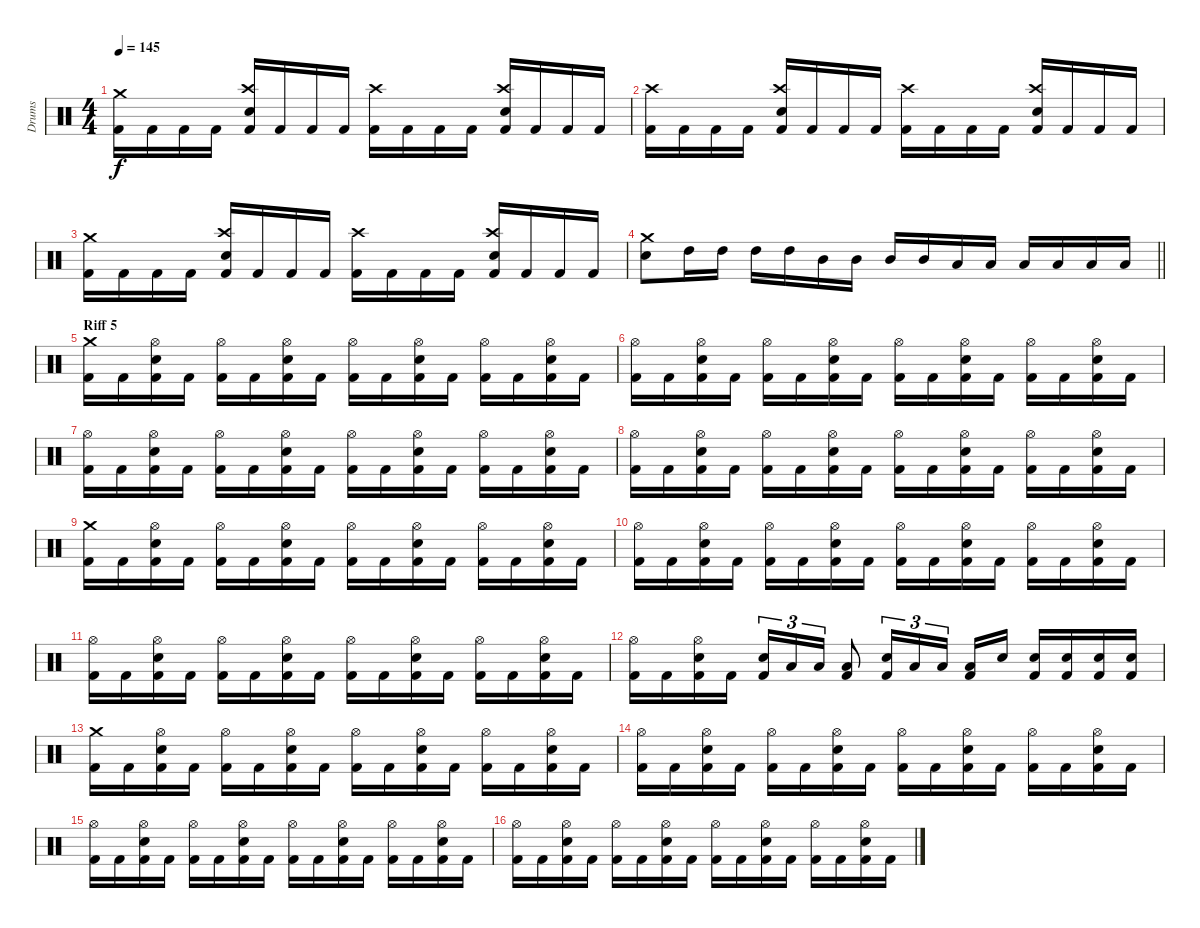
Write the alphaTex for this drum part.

\track ("Drums" "Drums") {instrument percussion}
\staff {score}
\articulation defaults
\ts (4 4)
\tempo 145
\clef neutral
\ks c
("Crash medium (hit)" "Kick (hit) 2").16{dy f} "Kick (hit) 2".16 "Kick (hit) 2".16 "Kick (hit) 2".16 ("Crash high (hit)" "Electric Snare (hit)" "Kick (hit) 2").16 "Kick (hit) 2".16 "Kick (hit) 2".16 "Kick (hit) 2".16 ("Crash high (hit)" "Kick (hit) 2").16 "Kick (hit) 2".16 "Kick (hit) 2".16 "Kick (hit) 2".16 ("Crash high (hit)" "Electric Snare (hit)" "Kick (hit) 2").16 "Kick (hit) 2".16 "Kick (hit) 2".16 "Kick (hit) 2".16 |
("Crash high (hit)" "Kick (hit) 2").16 "Kick (hit) 2".16 "Kick (hit) 2".16 "Kick (hit) 2".16 ("Crash high (hit)" "Electric Snare (hit)" "Kick (hit) 2").16 "Kick (hit) 2".16 "Kick (hit) 2".16 "Kick (hit) 2".16 ("Crash high (hit)" "Kick (hit) 2").16 "Kick (hit) 2".16 "Kick (hit) 2".16 "Kick (hit) 2".16 ("Crash high (hit)" "Electric Snare (hit)" "Kick (hit) 2").16 "Kick (hit) 2".16 "Kick (hit) 2".16 "Kick (hit) 2".16 |
("Crash medium (hit)" "Kick (hit) 2").16 "Kick (hit) 2".16 "Kick (hit) 2".16 "Kick (hit) 2".16 ("Crash high (hit)" "Electric Snare (hit)" "Kick (hit) 2").16 "Kick (hit) 2".16 "Kick (hit) 2".16 "Kick (hit) 2".16 ("Crash high (hit)" "Kick (hit) 2").16 "Kick (hit) 2".16 "Kick (hit) 2".16 "Kick (hit) 2".16 ("Crash high (hit)" "Electric Snare (hit)" "Kick (hit) 2").16 "Kick (hit) 2".16 "Kick (hit) 2".16 "Kick (hit) 2".16 |
\barLineRight lightlight
("Crash medium (hit)" "Electric Snare (hit)").8 "High Tom (hit)".16 "High Tom (hit)".16 "High Tom (hit)".16 "High Tom (hit)".16 "Mid Tom (hit)".16 "Mid Tom (hit)".16 "Mid Tom (hit)".16 "Mid Tom (hit)".16 "Low Tom (hit)".16 "Low Tom (hit)".16 "Low Tom (hit)".16 "Low Tom (hit)".16 "Low Floor Tom (hit)".16 "Low Floor Tom (hit)".16 |
\section ("" "Riff 5")
("Crash medium (hit)" "Kick (hit) 2").16 "Kick (hit) 2".16 ("Hi-Hat (open)" "Electric Snare (hit)" "Kick (hit) 2").16 "Kick (hit) 2".16 ("Hi-Hat (open)" "Kick (hit) 2").16 "Kick (hit) 2".16 ("Hi-Hat (open)" "Electric Snare (hit)" "Kick (hit) 2").16 "Kick (hit) 2".16 ("Hi-Hat (open)" "Kick (hit) 2").16 "Kick (hit) 2".16 ("Hi-Hat (open)" "Electric Snare (hit)" "Kick (hit) 2").16 "Kick (hit) 2".16 ("Hi-Hat (open)" "Kick (hit) 2").16 "Kick (hit) 2".16 ("Hi-Hat (open)" "Electric Snare (hit)" "Kick (hit) 2").16 "Kick (hit) 2".16 |
("Hi-Hat (open)" "Kick (hit) 2").16 "Kick (hit) 2".16 ("Hi-Hat (open)" "Electric Snare (hit)" "Kick (hit) 2").16 "Kick (hit) 2".16 ("Hi-Hat (open)" "Kick (hit) 2").16 "Kick (hit) 2".16 ("Hi-Hat (open)" "Electric Snare (hit)" "Kick (hit) 2").16 "Kick (hit) 2".16 ("Hi-Hat (open)" "Kick (hit) 2").16 "Kick (hit) 2".16 ("Hi-Hat (open)" "Electric Snare (hit)" "Kick (hit) 2").16 "Kick (hit) 2".16 ("Hi-Hat (open)" "Kick (hit) 2").16 "Kick (hit) 2".16 ("Hi-Hat (open)" "Electric Snare (hit)" "Kick (hit) 2").16 "Kick (hit) 2".16 |
("Hi-Hat (open)" "Kick (hit) 2").16 "Kick (hit) 2".16 ("Hi-Hat (open)" "Electric Snare (hit)" "Kick (hit) 2").16 "Kick (hit) 2".16 ("Hi-Hat (open)" "Kick (hit) 2").16 "Kick (hit) 2".16 ("Hi-Hat (open)" "Electric Snare (hit)" "Kick (hit) 2").16 "Kick (hit) 2".16 ("Hi-Hat (open)" "Kick (hit) 2").16 "Kick (hit) 2".16 ("Hi-Hat (open)" "Electric Snare (hit)" "Kick (hit) 2").16 "Kick (hit) 2".16 ("Hi-Hat (open)" "Kick (hit) 2").16 "Kick (hit) 2".16 ("Hi-Hat (open)" "Electric Snare (hit)" "Kick (hit) 2").16 "Kick (hit) 2".16 |
("Hi-Hat (open)" "Kick (hit) 2").16 "Kick (hit) 2".16 ("Hi-Hat (open)" "Electric Snare (hit)" "Kick (hit) 2").16 "Kick (hit) 2".16 ("Hi-Hat (open)" "Kick (hit) 2").16 "Kick (hit) 2".16 ("Hi-Hat (open)" "Electric Snare (hit)" "Kick (hit) 2").16 "Kick (hit) 2".16 ("Hi-Hat (open)" "Kick (hit) 2").16 "Kick (hit) 2".16 ("Hi-Hat (open)" "Electric Snare (hit)" "Kick (hit) 2").16 "Kick (hit) 2".16 ("Hi-Hat (open)" "Kick (hit) 2").16 "Kick (hit) 2".16 ("Hi-Hat (open)" "Electric Snare (hit)" "Kick (hit) 2").16 "Kick (hit) 2".16 |
("Crash medium (hit)" "Kick (hit) 2").16 "Kick (hit) 2".16 ("Hi-Hat (open)" "Electric Snare (hit)" "Kick (hit) 2").16 "Kick (hit) 2".16 ("Hi-Hat (open)" "Kick (hit) 2").16 "Kick (hit) 2".16 ("Hi-Hat (open)" "Electric Snare (hit)" "Kick (hit) 2").16 "Kick (hit) 2".16 ("Hi-Hat (open)" "Kick (hit) 2").16 "Kick (hit) 2".16 ("Hi-Hat (open)" "Electric Snare (hit)" "Kick (hit) 2").16 "Kick (hit) 2".16 ("Hi-Hat (open)" "Kick (hit) 2").16 "Kick (hit) 2".16 ("Hi-Hat (open)" "Electric Snare (hit)" "Kick (hit) 2").16 "Kick (hit) 2".16 |
("Hi-Hat (open)" "Kick (hit) 2").16 "Kick (hit) 2".16 ("Hi-Hat (open)" "Electric Snare (hit)" "Kick (hit) 2").16 "Kick (hit) 2".16 ("Hi-Hat (open)" "Kick (hit) 2").16 "Kick (hit) 2".16 ("Hi-Hat (open)" "Electric Snare (hit)" "Kick (hit) 2").16 "Kick (hit) 2".16 ("Hi-Hat (open)" "Kick (hit) 2").16 "Kick (hit) 2".16 ("Hi-Hat (open)" "Electric Snare (hit)" "Kick (hit) 2").16 "Kick (hit) 2".16 ("Hi-Hat (open)" "Kick (hit) 2").16 "Kick (hit) 2".16 ("Hi-Hat (open)" "Electric Snare (hit)" "Kick (hit) 2").16 "Kick (hit) 2".16 |
("Hi-Hat (open)" "Kick (hit) 2").16 "Kick (hit) 2".16 ("Hi-Hat (open)" "Electric Snare (hit)" "Kick (hit) 2").16 "Kick (hit) 2".16 ("Hi-Hat (open)" "Kick (hit) 2").16 "Kick (hit) 2".16 ("Hi-Hat (open)" "Electric Snare (hit)" "Kick (hit) 2").16 "Kick (hit) 2".16 ("Hi-Hat (open)" "Kick (hit) 2").16 "Kick (hit) 2".16 ("Hi-Hat (open)" "Electric Snare (hit)" "Kick (hit) 2").16 "Kick (hit) 2".16 ("Hi-Hat (open)" "Kick (hit) 2").16 "Kick (hit) 2".16 ("Hi-Hat (open)" "Electric Snare (hit)" "Kick (hit) 2").16 "Kick (hit) 2".16 |
("Hi-Hat (open)" "Kick (hit) 2").16 "Kick (hit) 2".16 ("Hi-Hat (open)" "Electric Snare (hit)" "Kick (hit) 2").16 "Kick (hit) 2".16 ("Electric Snare (hit)" "Kick (hit) 2").16{tu (3 2)} "Low Tom (hit)".16{tu (3 2)} "Low Tom (hit)".16{tu (3 2)} ("Low Floor Tom (hit)" "Kick (hit) 2").8 ("Electric Snare (hit)" "Kick (hit) 2").16{tu (3 2)} "Low Tom (hit)".16{tu (3 2)} "Low Tom (hit)".16{tu (3 2) beam splitsecondary} ("Low Floor Tom (hit)" "Kick (hit) 2").16 "Electric Snare (hit)".16 ("Electric Snare (hit)" "Kick (hit) 2").16 ("Electric Snare (hit)" "Kick (hit) 2").16 ("Electric Snare (hit)" "Kick (hit) 2").16 ("Electric Snare (hit)" "Kick (hit) 2").16 |
("Crash medium (hit)" "Kick (hit) 2").16 "Kick (hit) 2".16 ("Hi-Hat (open)" "Electric Snare (hit)" "Kick (hit) 2").16 "Kick (hit) 2".16 ("Hi-Hat (open)" "Kick (hit) 2").16 "Kick (hit) 2".16 ("Hi-Hat (open)" "Electric Snare (hit)" "Kick (hit) 2").16 "Kick (hit) 2".16 ("Hi-Hat (open)" "Kick (hit) 2").16 "Kick (hit) 2".16 ("Hi-Hat (open)" "Electric Snare (hit)" "Kick (hit) 2").16 "Kick (hit) 2".16 ("Hi-Hat (open)" "Kick (hit) 2").16 "Kick (hit) 2".16 ("Hi-Hat (open)" "Electric Snare (hit)" "Kick (hit) 2").16 "Kick (hit) 2".16 |
("Hi-Hat (open)" "Kick (hit) 2").16 "Kick (hit) 2".16 ("Hi-Hat (open)" "Electric Snare (hit)" "Kick (hit) 2").16 "Kick (hit) 2".16 ("Hi-Hat (open)" "Kick (hit) 2").16 "Kick (hit) 2".16 ("Hi-Hat (open)" "Electric Snare (hit)" "Kick (hit) 2").16 "Kick (hit) 2".16 ("Hi-Hat (open)" "Kick (hit) 2").16 "Kick (hit) 2".16 ("Hi-Hat (open)" "Electric Snare (hit)" "Kick (hit) 2").16 "Kick (hit) 2".16 ("Hi-Hat (open)" "Kick (hit) 2").16 "Kick (hit) 2".16 ("Hi-Hat (open)" "Electric Snare (hit)" "Kick (hit) 2").16 "Kick (hit) 2".16 |
("Hi-Hat (open)" "Kick (hit) 2").16 "Kick (hit) 2".16 ("Hi-Hat (open)" "Electric Snare (hit)" "Kick (hit) 2").16 "Kick (hit) 2".16 ("Hi-Hat (open)" "Kick (hit) 2").16 "Kick (hit) 2".16 ("Hi-Hat (open)" "Electric Snare (hit)" "Kick (hit) 2").16 "Kick (hit) 2".16 ("Hi-Hat (open)" "Kick (hit) 2").16 "Kick (hit) 2".16 ("Hi-Hat (open)" "Electric Snare (hit)" "Kick (hit) 2").16 "Kick (hit) 2".16 ("Hi-Hat (open)" "Kick (hit) 2").16 "Kick (hit) 2".16 ("Hi-Hat (open)" "Electric Snare (hit)" "Kick (hit) 2").16 "Kick (hit) 2".16 |
("Hi-Hat (open)" "Kick (hit) 2").16 "Kick (hit) 2".16 ("Hi-Hat (open)" "Electric Snare (hit)" "Kick (hit) 2").16 "Kick (hit) 2".16 ("Hi-Hat (open)" "Kick (hit) 2").16 "Kick (hit) 2".16 ("Hi-Hat (open)" "Electric Snare (hit)" "Kick (hit) 2").16 "Kick (hit) 2".16 ("Hi-Hat (open)" "Kick (hit) 2").16 "Kick (hit) 2".16 ("Hi-Hat (open)" "Electric Snare (hit)" "Kick (hit) 2").16 "Kick (hit) 2".16 ("Hi-Hat (open)" "Kick (hit) 2").16 "Kick (hit) 2".16 ("Hi-Hat (open)" "Electric Snare (hit)" "Kick (hit) 2").16 "Kick (hit) 2".16
